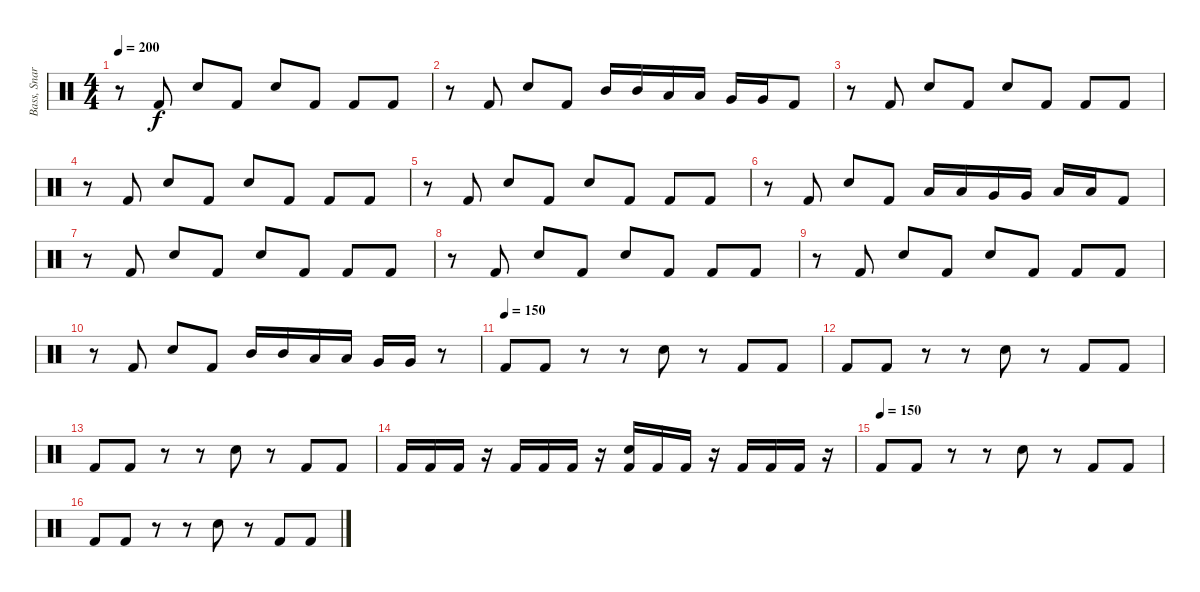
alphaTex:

\track ("Bass, Snare & Toms" "Bass, Snar") {instrument percussion}
\staff {score}
\articulation defaults
\ts (4 4)
\tempo 200
\clef neutral
\ks c
r.8{dy f} "Kick (hit) 2".8 "Electric Snare (hit)".8 "Kick (hit) 2".8 "Electric Snare (hit)".8 "Kick (hit) 2".8 "Kick (hit) 2".8 "Kick (hit) 2".8 |
r.8 "Kick (hit) 2".8 "Electric Snare (hit)".8 "Kick (hit) 2".8 "Mid Tom (hit)".16 "Mid Tom (hit)".16 "Low Tom (hit)".16 "Low Tom (hit)".16 "Very Low Tom (hit)".16 "Very Low Tom (hit)".16 "Kick (hit) 2".8 |
r.8 "Kick (hit) 2".8 "Electric Snare (hit)".8 "Kick (hit) 2".8 "Electric Snare (hit)".8 "Kick (hit) 2".8 "Kick (hit) 2".8 "Kick (hit) 2".8 |
r.8 "Kick (hit) 2".8 "Electric Snare (hit)".8 "Kick (hit) 2".8 "Electric Snare (hit)".8 "Kick (hit) 2".8 "Kick (hit) 2".8 "Kick (hit) 2".8 |
r.8 "Kick (hit) 2".8 "Electric Snare (hit)".8 "Kick (hit) 2".8 "Electric Snare (hit)".8 "Kick (hit) 2".8 "Kick (hit) 2".8 "Kick (hit) 2".8 |
r.8 "Kick (hit) 2".8 "Electric Snare (hit)".8 "Kick (hit) 2".8 "Low Tom (hit)".16 "Low Tom (hit)".16 "Very Low Tom (hit)".16 "Very Low Tom (hit)".16 "Low Floor Tom (hit)".16 "Low Floor Tom (hit)".16 "Kick (hit) 2".8 |
r.8 "Kick (hit) 2".8 "Electric Snare (hit)".8 "Kick (hit) 2".8 "Electric Snare (hit)".8 "Kick (hit) 2".8 "Kick (hit) 2".8 "Kick (hit) 2".8 |
r.8 "Kick (hit) 2".8 "Electric Snare (hit)".8 "Kick (hit) 2".8 "Electric Snare (hit)".8 "Kick (hit) 2".8 "Kick (hit) 2".8 "Kick (hit) 2".8 |
r.8 "Kick (hit) 2".8 "Electric Snare (hit)".8 "Kick (hit) 2".8 "Electric Snare (hit)".8 "Kick (hit) 2".8 "Kick (hit) 2".8 "Kick (hit) 2".8 |
r.8 "Kick (hit) 2".8 "Electric Snare (hit)".8 "Kick (hit) 2".8 "Mid Tom (hit)".16 "Mid Tom (hit)".16 "Low Tom (hit)".16 "Low Tom (hit)".16 "Very Low Tom (hit)".16 "Very Low Tom (hit)".16 r.8 |
\tempo (150)
"Kick (hit) 2".8 "Kick (hit) 2".8 r.8 r.8 "Electric Snare (hit)".8 r.8 "Kick (hit) 2".8 "Kick (hit) 2".8 |
"Kick (hit) 2".8 "Kick (hit) 2".8 r.8 r.8 "Electric Snare (hit)".8 r.8 "Kick (hit) 2".8 "Kick (hit) 2".8 |
"Kick (hit) 2".8 "Kick (hit) 2".8 r.8 r.8 "Electric Snare (hit)".8 r.8 "Kick (hit) 2".8 "Kick (hit) 2".8 |
"Kick (hit) 2".16 "Kick (hit) 2".16 "Kick (hit) 2".16 r.16 "Kick (hit) 2".16 "Kick (hit) 2".16 "Kick (hit) 2".16 r.16 ("Electric Snare (hit)" "Kick (hit) 2").16 "Kick (hit) 2".16 "Kick (hit) 2".16 r.16 "Kick (hit) 2".16 "Kick (hit) 2".16 "Kick (hit) 2".16 r.16 |
\tempo (150)
"Kick (hit) 2".8 "Kick (hit) 2".8 r.8 r.8 "Electric Snare (hit)".8 r.8 "Kick (hit) 2".8 "Kick (hit) 2".8 |
"Kick (hit) 2".8 "Kick (hit) 2".8 r.8 r.8 "Electric Snare (hit)".8 r.8 "Kick (hit) 2".8 "Kick (hit) 2".8
